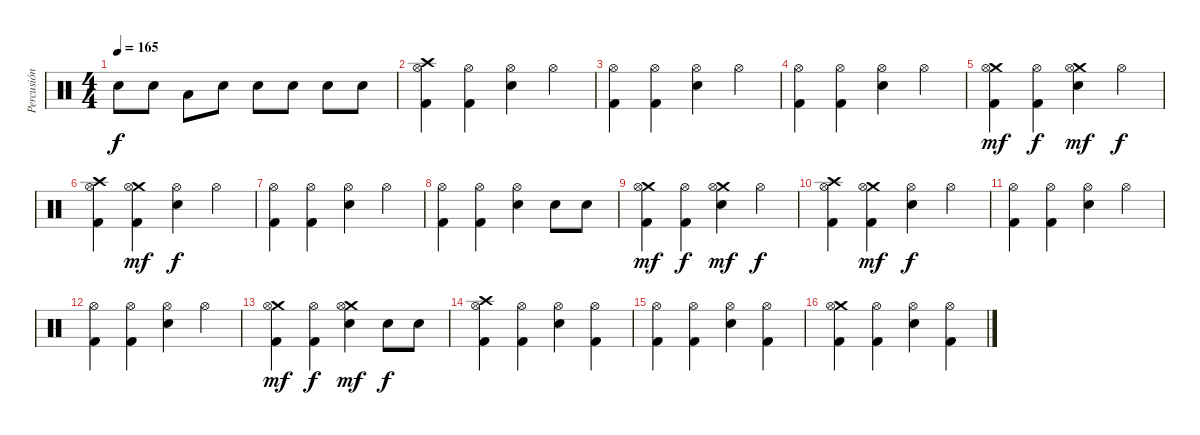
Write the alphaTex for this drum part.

\track ("Percusión" "Percusión") {instrument percussion}
\staff {score}
\articulation defaults
\ts (4 4)
\tempo 165
\clef neutral
\ks c "Electric Snare (hit)".8{dy f} "Electric Snare (hit)".8 "Low Tom (hit)".8 "Electric Snare (hit)".8 "Electric Snare (hit)".8 "Electric Snare (hit)".8 "Electric Snare (hit)".8 "Electric Snare (hit)".8
|
("Crash high (hit)" "Hi-Hat (open)" "Kick (hit) 2").4 ("Hi-Hat (open)" "Kick (hit) 2").4 ("Hi-Hat (open)" "Electric Snare (hit)").4 "Hi-Hat (open)".4 |
("Hi-Hat (open)" "Kick (hit) 2").4 ("Hi-Hat (open)" "Kick (hit) 2").4 ("Hi-Hat (open)" "Electric Snare (hit)").4 "Hi-Hat (open)".4 |
("Hi-Hat (open)" "Kick (hit) 2").4 ("Hi-Hat (open)" "Kick (hit) 2").4 ("Hi-Hat (open)" "Electric Snare (hit)").4 "Hi-Hat (open)".4 |
("Crash medium (hit)" "Hi-Hat (open)" "Kick (hit) 2").4{dy mf} ("Hi-Hat (open)" "Kick (hit) 2").4{dy f} ("Crash medium (hit)" "Hi-Hat (open)" "Electric Snare (hit)").4{dy mf} "Hi-Hat (open)".4{dy f} |
("Crash high (hit)" "Hi-Hat (open)" "Kick (hit) 2").4 ("Crash medium (hit)" "Hi-Hat (open)" "Kick (hit) 2").4{dy mf} ("Hi-Hat (open)" "Electric Snare (hit)").4{dy f} "Hi-Hat (open)".4 |
("Hi-Hat (open)" "Kick (hit) 2").4 ("Hi-Hat (open)" "Kick (hit) 2").4 ("Hi-Hat (open)" "Electric Snare (hit)").4 "Hi-Hat (open)".4 |
("Hi-Hat (open)" "Kick (hit) 2").4 ("Hi-Hat (open)" "Kick (hit) 2").4 ("Hi-Hat (open)" "Electric Snare (hit)").4 "Electric Snare (hit)".8 "Electric Snare (hit)".8 |
("Crash medium (hit)" "Hi-Hat (open)" "Kick (hit) 2").4{dy mf} ("Hi-Hat (open)" "Kick (hit) 2").4{dy f} ("Crash medium (hit)" "Hi-Hat (open)" "Electric Snare (hit)").4{dy mf} "Hi-Hat (open)".4{dy f} |
("Crash high (hit)" "Hi-Hat (open)" "Kick (hit) 2").4 ("Crash medium (hit)" "Hi-Hat (open)" "Kick (hit) 2").4{dy mf} ("Hi-Hat (open)" "Electric Snare (hit)").4{dy f} "Hi-Hat (open)".4 |
("Hi-Hat (open)" "Kick (hit) 2").4 ("Hi-Hat (open)" "Kick (hit) 2").4 ("Hi-Hat (open)" "Electric Snare (hit)").4 "Hi-Hat (open)".4 |
("Hi-Hat (open)" "Kick (hit) 2").4 ("Hi-Hat (open)" "Kick (hit) 2").4 ("Hi-Hat (open)" "Electric Snare (hit)").4 "Hi-Hat (open)".4 |
("Crash medium (hit)" "Hi-Hat (open)" "Kick (hit) 2").4{dy mf} ("Hi-Hat (open)" "Kick (hit) 2").4{dy f} ("Crash medium (hit)" "Hi-Hat (open)" "Electric Snare (hit)").4{dy mf} "Electric Snare (hit)".8{dy f} "Electric Snare (hit)".8 |
("Crash high (hit)" "Hi-Hat (open)" "Kick (hit) 2").4 ("Hi-Hat (open)" "Kick (hit) 2").4 ("Hi-Hat (open)" "Electric Snare (hit)").4 ("Hi-Hat (open)" "Kick (hit) 2").4 |
("Hi-Hat (open)" "Kick (hit) 2").4 ("Hi-Hat (open)" "Kick (hit) 2").4 ("Hi-Hat (open)" "Electric Snare (hit)").4 ("Hi-Hat (open)" "Kick (hit) 2").4 |
("Crash medium (hit)" "Hi-Hat (open)" "Kick (hit) 2").4 ("Hi-Hat (open)" "Kick (hit) 2").4 ("Hi-Hat (open)" "Electric Snare (hit)").4 ("Hi-Hat (open)" "Kick (hit) 2").4
